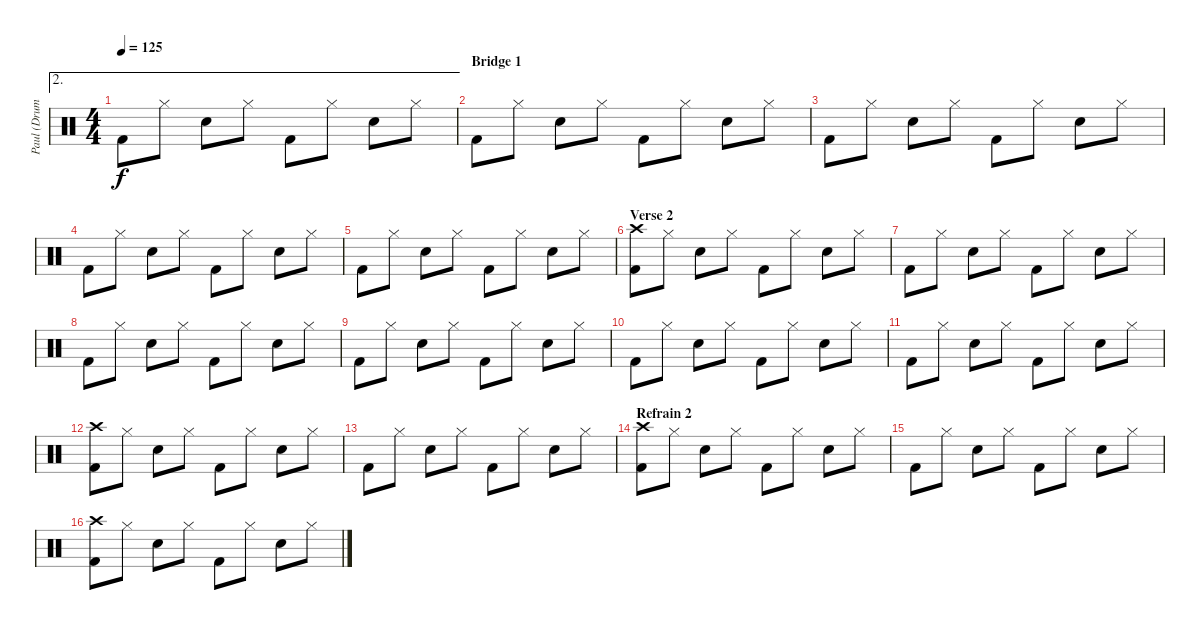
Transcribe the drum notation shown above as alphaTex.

\track ("Paul (Drums)" "Paul (Drum") {instrument percussion}
\staff {score}
\articulation defaults
\ae 2
\ts (4 4)
\tempo 125
\clef neutral
\ks c "Kick (hit) 2".8{dy f} "Hi-Hat (closed)".8 "Snare (hit) 2".8 "Hi-Hat (closed)".8 "Kick (hit) 2".8 "Hi-Hat (closed)".8 "Snare (hit) 2".8 "Hi-Hat (closed)".8
|
\section ("" "Bridge 1")
"Kick (hit) 2".8 "Hi-Hat (closed)".8 "Snare (hit) 2".8 "Hi-Hat (closed)".8 "Kick (hit) 2".8 "Hi-Hat (closed)".8 "Snare (hit) 2".8 "Hi-Hat (closed)".8 |
"Kick (hit) 2".8 "Hi-Hat (closed)".8 "Snare (hit) 2".8 "Hi-Hat (closed)".8 "Kick (hit) 2".8 "Hi-Hat (closed)".8 "Snare (hit) 2".8 "Hi-Hat (closed)".8 |
"Kick (hit) 2".8 "Hi-Hat (closed)".8 "Snare (hit) 2".8 "Hi-Hat (closed)".8 "Kick (hit) 2".8 "Hi-Hat (closed)".8 "Snare (hit) 2".8 "Hi-Hat (closed)".8 |
"Kick (hit) 2".8 "Hi-Hat (closed)".8 "Snare (hit) 2".8 "Hi-Hat (closed)".8 "Kick (hit) 2".8 "Hi-Hat (closed)".8 "Snare (hit) 2".8 "Hi-Hat (closed)".8 |
\section ("" "Verse 2")
("Crash high (hit)" "Kick (hit) 2").8 "Hi-Hat (closed)".8 "Snare (hit) 2".8 "Hi-Hat (closed)".8 "Kick (hit) 2".8 "Hi-Hat (closed)".8 "Snare (hit) 2".8 "Hi-Hat (closed)".8 |
"Kick (hit) 2".8 "Hi-Hat (closed)".8 "Snare (hit) 2".8 "Hi-Hat (closed)".8 "Kick (hit) 2".8 "Hi-Hat (closed)".8 "Snare (hit) 2".8 "Hi-Hat (closed)".8 |
"Kick (hit) 2".8 "Hi-Hat (closed)".8 "Snare (hit) 2".8 "Hi-Hat (closed)".8 "Kick (hit) 2".8 "Hi-Hat (closed)".8 "Snare (hit) 2".8 "Hi-Hat (closed)".8 |
"Kick (hit) 2".8 "Hi-Hat (closed)".8 "Snare (hit) 2".8 "Hi-Hat (closed)".8 "Kick (hit) 2".8 "Hi-Hat (closed)".8 "Snare (hit) 2".8 "Hi-Hat (closed)".8 |
"Kick (hit) 2".8 "Hi-Hat (closed)".8 "Snare (hit) 2".8 "Hi-Hat (closed)".8 "Kick (hit) 2".8 "Hi-Hat (closed)".8 "Snare (hit) 2".8 "Hi-Hat (closed)".8 |
"Kick (hit) 2".8 "Hi-Hat (closed)".8 "Snare (hit) 2".8 "Hi-Hat (closed)".8 "Kick (hit) 2".8 "Hi-Hat (closed)".8 "Snare (hit) 2".8 "Hi-Hat (closed)".8 |
("Crash high (hit)" "Kick (hit) 2").8 "Hi-Hat (closed)".8 "Snare (hit) 2".8 "Hi-Hat (closed)".8 "Kick (hit) 2".8 "Hi-Hat (closed)".8 "Snare (hit) 2".8 "Hi-Hat (closed)".8 |
"Kick (hit) 2".8 "Hi-Hat (closed)".8 "Snare (hit) 2".8 "Hi-Hat (closed)".8 "Kick (hit) 2".8 "Hi-Hat (closed)".8 "Snare (hit) 2".8 "Hi-Hat (closed)".8 |
\section ("" "Refrain 2")
("Crash high (hit)" "Kick (hit) 2").8 "Hi-Hat (closed)".8 "Snare (hit) 2".8 "Hi-Hat (closed)".8 "Kick (hit) 2".8 "Hi-Hat (closed)".8 "Snare (hit) 2".8 "Hi-Hat (closed)".8 |
"Kick (hit) 2".8 "Hi-Hat (closed)".8 "Snare (hit) 2".8 "Hi-Hat (closed)".8 "Kick (hit) 2".8 "Hi-Hat (closed)".8 "Snare (hit) 2".8 "Hi-Hat (closed)".8 |
("Crash high (hit)" "Kick (hit) 2").8 "Hi-Hat (closed)".8 "Snare (hit) 2".8 "Hi-Hat (closed)".8 "Kick (hit) 2".8 "Hi-Hat (closed)".8 "Snare (hit) 2".8 "Hi-Hat (closed)".8
